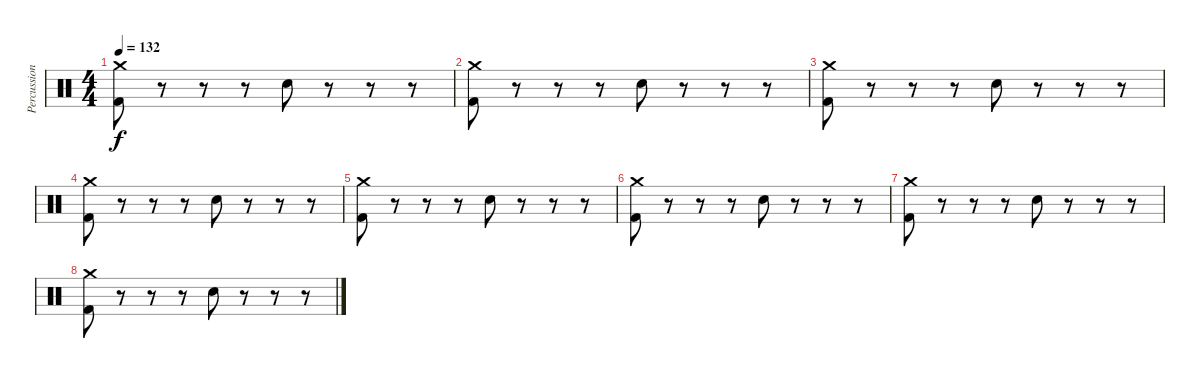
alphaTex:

\track ("Percussion" "Percussion") {instrument percussion}
\staff {score}
\articulation defaults
\ts (4 4)
\tempo 132
\clef neutral
\ks c
("Crash medium (hit)" "Kick (hit) 2").8{dy f} r.8 r.8 r.8 "Electric Snare (hit)".8 r.8 r.8 r.8 |
("Crash medium (hit)" "Kick (hit) 2").8 r.8 r.8 r.8 "Electric Snare (hit)".8 r.8 r.8 r.8 |
("Crash medium (hit)" "Kick (hit) 2").8 r.8 r.8 r.8 "Electric Snare (hit)".8 r.8 r.8 r.8 |
("Crash medium (hit)" "Kick (hit) 2").8 r.8 r.8 r.8 "Electric Snare (hit)".8 r.8 r.8 r.8 |
("Crash medium (hit)" "Kick (hit) 2").8 r.8 r.8 r.8 "Electric Snare (hit)".8 r.8 r.8 r.8 |
("Crash medium (hit)" "Kick (hit) 2").8 r.8 r.8 r.8 "Electric Snare (hit)".8 r.8 r.8 r.8 |
("Crash medium (hit)" "Kick (hit) 2").8 r.8 r.8 r.8 "Electric Snare (hit)".8 r.8 r.8 r.8 |
("Crash medium (hit)" "Kick (hit) 2").8 r.8 r.8 r.8 "Electric Snare (hit)".8 r.8 r.8 r.8
